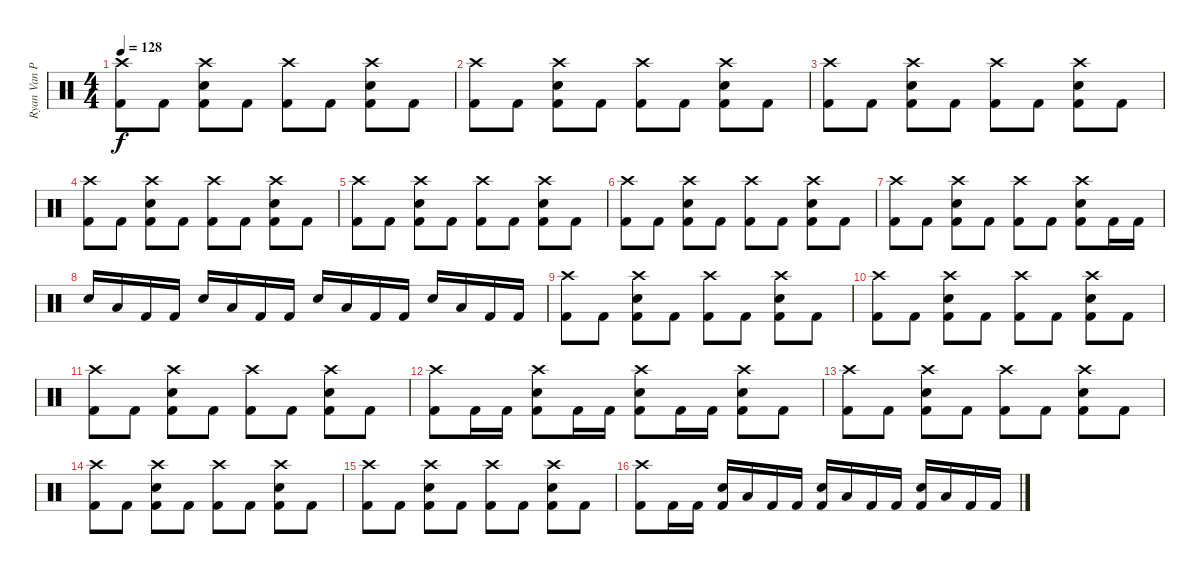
\track ("Ryan Van Poederooyen" "Ryan Van P") {instrument percussion}
\staff {score}
\articulation defaults
\ts (4 4)
\tempo 128
\clef neutral
\ks c
("Crash high (hit)" "Kick (hit) 2").8{dy f} "Kick (hit) 2".8 ("Crash high (hit)" "Electric Snare (hit)" "Kick (hit) 2").8 "Kick (hit) 2".8 ("Crash high (hit)" "Kick (hit) 2").8 "Kick (hit) 2".8 ("Crash high (hit)" "Electric Snare (hit)" "Kick (hit) 2").8 "Kick (hit) 2".8 |
("Crash high (hit)" "Kick (hit) 2").8 "Kick (hit) 2".8 ("Crash high (hit)" "Electric Snare (hit)" "Kick (hit) 2").8 "Kick (hit) 2".8 ("Crash high (hit)" "Kick (hit) 2").8 "Kick (hit) 2".8 ("Crash high (hit)" "Electric Snare (hit)" "Kick (hit) 2").8 "Kick (hit) 2".8 |
("Crash high (hit)" "Kick (hit) 2").8 "Kick (hit) 2".8 ("Crash high (hit)" "Electric Snare (hit)" "Kick (hit) 2").8 "Kick (hit) 2".8 ("Crash high (hit)" "Kick (hit) 2").8 "Kick (hit) 2".8 ("Crash high (hit)" "Electric Snare (hit)" "Kick (hit) 2").8 "Kick (hit) 2".8 |
("Crash high (hit)" "Kick (hit) 2").8 "Kick (hit) 2".8 ("Crash high (hit)" "Electric Snare (hit)" "Kick (hit) 2").8 "Kick (hit) 2".8 ("Crash high (hit)" "Kick (hit) 2").8 "Kick (hit) 2".8 ("Crash high (hit)" "Electric Snare (hit)" "Kick (hit) 2").8 "Kick (hit) 2".8 |
("Crash high (hit)" "Kick (hit) 2").8 "Kick (hit) 2".8 ("Crash high (hit)" "Electric Snare (hit)" "Kick (hit) 2").8 "Kick (hit) 2".8 ("Crash high (hit)" "Kick (hit) 2").8 "Kick (hit) 2".8 ("Crash high (hit)" "Electric Snare (hit)" "Kick (hit) 2").8 "Kick (hit) 2".8 |
("Crash high (hit)" "Kick (hit) 2").8 "Kick (hit) 2".8 ("Crash high (hit)" "Electric Snare (hit)" "Kick (hit) 2").8 "Kick (hit) 2".8 ("Crash high (hit)" "Kick (hit) 2").8 "Kick (hit) 2".8 ("Crash high (hit)" "Electric Snare (hit)" "Kick (hit) 2").8 "Kick (hit) 2".8 |
("Crash high (hit)" "Kick (hit) 2").8 "Kick (hit) 2".8 ("Crash high (hit)" "Electric Snare (hit)" "Kick (hit) 2").8 "Kick (hit) 2".8 ("Crash high (hit)" "Kick (hit) 2").8 "Kick (hit) 2".8 ("Crash high (hit)" "Electric Snare (hit)" "Kick (hit) 2").8 "Kick (hit) 2".16 "Kick (hit) 2".16 |
"Electric Snare (hit)".16 "Low Tom (hit)".16 "Kick (hit) 2".16 "Kick (hit) 2".16 "Electric Snare (hit)".16 "Low Tom (hit)".16 "Kick (hit) 2".16 "Kick (hit) 2".16 "Electric Snare (hit)".16 "Low Tom (hit)".16 "Kick (hit) 2".16 "Kick (hit) 2".16 "Electric Snare (hit)".16 "Low Tom (hit)".16 "Kick (hit) 2".16 "Kick (hit) 2".16 |
("Crash high (hit)" "Kick (hit) 2").8{volume 10} "Kick (hit) 2".8 ("Crash high (hit)" "Electric Snare (hit)" "Kick (hit) 2").8 "Kick (hit) 2".8 ("Crash high (hit)" "Kick (hit) 2").8 "Kick (hit) 2".8 ("Crash high (hit)" "Electric Snare (hit)" "Kick (hit) 2").8 "Kick (hit) 2".8 |
("Crash high (hit)" "Kick (hit) 2").8 "Kick (hit) 2".8 ("Crash high (hit)" "Electric Snare (hit)" "Kick (hit) 2").8 "Kick (hit) 2".8 ("Crash high (hit)" "Kick (hit) 2").8 "Kick (hit) 2".8 ("Crash high (hit)" "Electric Snare (hit)" "Kick (hit) 2").8 "Kick (hit) 2".8 |
("Crash high (hit)" "Kick (hit) 2").8 "Kick (hit) 2".8 ("Crash high (hit)" "Electric Snare (hit)" "Kick (hit) 2").8 "Kick (hit) 2".8 ("Crash high (hit)" "Kick (hit) 2").8 "Kick (hit) 2".8 ("Crash high (hit)" "Electric Snare (hit)" "Kick (hit) 2").8 "Kick (hit) 2".8 |
("Crash high (hit)" "Kick (hit) 2").8 "Kick (hit) 2".16 "Kick (hit) 2".16 ("Crash high (hit)" "Electric Snare (hit)" "Kick (hit) 2").8 "Kick (hit) 2".16 "Kick (hit) 2".16 ("Crash high (hit)" "Electric Snare (hit)" "Kick (hit) 2").8 "Kick (hit) 2".16 "Kick (hit) 2".16 ("Crash high (hit)" "Electric Snare (hit)" "Kick (hit) 2").8 "Kick (hit) 2".8 |
("Crash high (hit)" "Kick (hit) 2").8{volume 8} "Kick (hit) 2".8 ("Crash high (hit)" "Electric Snare (hit)" "Kick (hit) 2").8 "Kick (hit) 2".8 ("Crash high (hit)" "Kick (hit) 2").8 "Kick (hit) 2".8 ("Crash high (hit)" "Electric Snare (hit)" "Kick (hit) 2").8 "Kick (hit) 2".8 |
("Crash high (hit)" "Kick (hit) 2").8 "Kick (hit) 2".8 ("Crash high (hit)" "Electric Snare (hit)" "Kick (hit) 2").8 "Kick (hit) 2".8 ("Crash high (hit)" "Kick (hit) 2").8 "Kick (hit) 2".8 ("Crash high (hit)" "Electric Snare (hit)" "Kick (hit) 2").8 "Kick (hit) 2".8 |
("Crash high (hit)" "Kick (hit) 2").8 "Kick (hit) 2".8 ("Crash high (hit)" "Electric Snare (hit)" "Kick (hit) 2").8 "Kick (hit) 2".8 ("Crash high (hit)" "Kick (hit) 2").8 "Kick (hit) 2".8 ("Crash high (hit)" "Electric Snare (hit)" "Kick (hit) 2").8 "Kick (hit) 2".8 |
("Crash high (hit)" "Kick (hit) 2").8 "Kick (hit) 2".16 "Kick (hit) 2".16 ("Electric Snare (hit)" "Kick (hit) 2").16 "Low Tom (hit)".16 "Kick (hit) 2".16 "Kick (hit) 2".16 ("Electric Snare (hit)" "Kick (hit) 2").16 "Low Tom (hit)".16 "Kick (hit) 2".16 "Kick (hit) 2".16 ("Electric Snare (hit)" "Kick (hit) 2").16 "Low Tom (hit)".16 "Kick (hit) 2".16 "Kick (hit) 2".16
